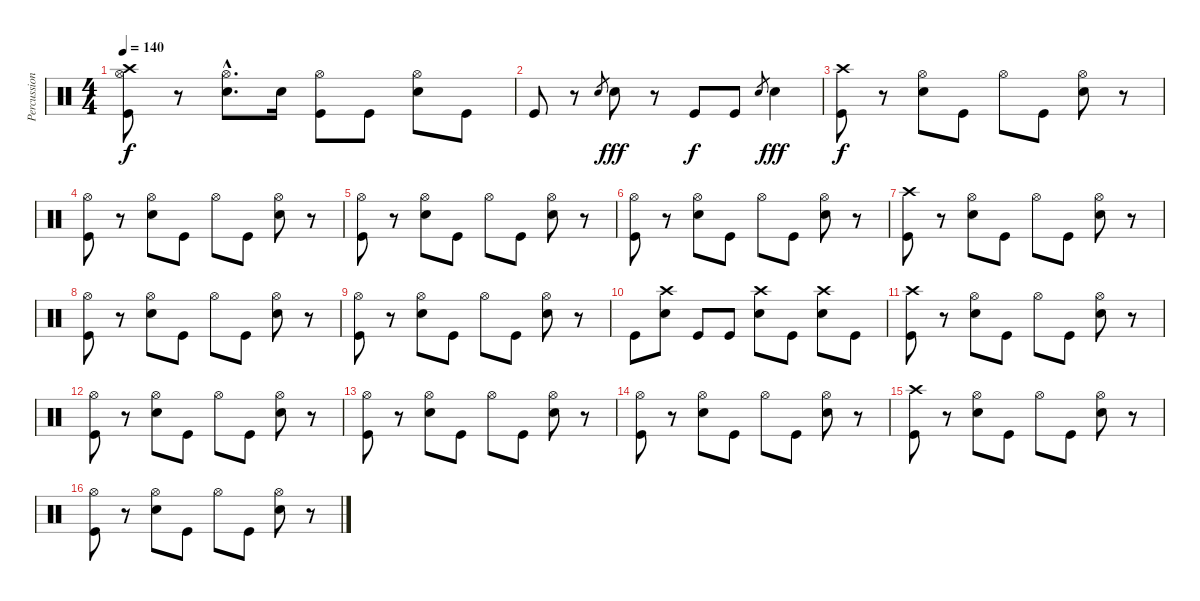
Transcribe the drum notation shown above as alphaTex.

\track ("Percussion" "Percussion") {instrument percussion}
\staff {score}
\articulation defaults
\ts (4 4)
\tempo 140
\clef neutral
\ks c
("Kick (hit)" "Hi-Hat (open)" "Crash high (hit)").8{dy f} r.8 ("Snare (hit) 2"{hac} "Hi-Hat (open)"{hac}).8{d} "Snare (hit) 2".16 ("Kick (hit)" "Hi-Hat (open)").8 "Kick (hit)".8 ("Snare (hit) 2" "Hi-Hat (open)").8 "Kick (hit)".8 |
"Kick (hit)".8 r.8 "Snare (hit) 2".8{gr} "Snare (hit) 2".8{dy fff} r.8 "Kick (hit)".8{dy f} "Kick (hit)".8 "Snare (hit) 2".8{gr} "Snare (hit) 2".4{dy fff} |
("Kick (hit)" "Crash high (hit)").8{dy f} r.8 ("Snare (hit) 2" "Hi-Hat (open)").8 "Kick (hit)".8 "Hi-Hat (open)".8 "Kick (hit)".8 ("Snare (hit) 2" "Hi-Hat (open)").8 r.8 |
("Kick (hit)" "Hi-Hat (open)").8 r.8 ("Snare (hit) 2" "Hi-Hat (open)").8 "Kick (hit)".8 "Hi-Hat (open)".8 "Kick (hit)".8 ("Snare (hit) 2" "Hi-Hat (open)").8 r.8 |
("Kick (hit)" "Hi-Hat (open)").8 r.8 ("Snare (hit) 2" "Hi-Hat (open)").8 "Kick (hit)".8 "Hi-Hat (open)".8 "Kick (hit)".8 ("Snare (hit) 2" "Hi-Hat (open)").8 r.8 |
("Kick (hit)" "Hi-Hat (open)").8 r.8 ("Snare (hit) 2" "Hi-Hat (open)").8 "Kick (hit)".8 "Hi-Hat (open)".8 "Kick (hit)".8 ("Snare (hit) 2" "Hi-Hat (open)").8 r.8 |
("Kick (hit)" "Crash high (hit)").8 r.8 ("Snare (hit) 2" "Hi-Hat (open)").8 "Kick (hit)".8 "Hi-Hat (open)".8 "Kick (hit)".8 ("Snare (hit) 2" "Hi-Hat (open)").8 r.8 |
("Kick (hit)" "Hi-Hat (open)").8 r.8 ("Snare (hit) 2" "Hi-Hat (open)").8 "Kick (hit)".8 "Hi-Hat (open)".8 "Kick (hit)".8 ("Snare (hit) 2" "Hi-Hat (open)").8 r.8 |
("Kick (hit)" "Hi-Hat (open)").8 r.8 ("Snare (hit) 2" "Hi-Hat (open)").8 "Kick (hit)".8 "Hi-Hat (open)".8 "Kick (hit)".8 ("Snare (hit) 2" "Hi-Hat (open)").8 r.8 |
"Kick (hit)".8 ("Snare (hit) 2" "Crash high (hit)").8 "Kick (hit)".8 "Kick (hit)".8 ("Snare (hit) 2" "Crash high (hit)").8 "Kick (hit)".8 ("Snare (hit) 2" "Crash high (hit)").8 "Kick (hit)".8 |
("Kick (hit)" "Crash high (hit)").8 r.8 ("Snare (hit) 2" "Hi-Hat (open)").8 "Kick (hit)".8 "Hi-Hat (open)".8 "Kick (hit)".8 ("Snare (hit) 2" "Hi-Hat (open)").8 r.8 |
("Kick (hit)" "Hi-Hat (open)").8 r.8 ("Snare (hit) 2" "Hi-Hat (open)").8 "Kick (hit)".8 "Hi-Hat (open)".8 "Kick (hit)".8 ("Snare (hit) 2" "Hi-Hat (open)").8 r.8 |
("Kick (hit)" "Hi-Hat (open)").8 r.8 ("Snare (hit) 2" "Hi-Hat (open)").8 "Kick (hit)".8 "Hi-Hat (open)".8 "Kick (hit)".8 ("Snare (hit) 2" "Hi-Hat (open)").8 r.8 |
("Kick (hit)" "Hi-Hat (open)").8 r.8 ("Snare (hit) 2" "Hi-Hat (open)").8 "Kick (hit)".8 "Hi-Hat (open)".8 "Kick (hit)".8 ("Snare (hit) 2" "Hi-Hat (open)").8 r.8 |
("Kick (hit)" "Crash high (hit)").8 r.8 ("Snare (hit) 2" "Hi-Hat (open)").8 "Kick (hit)".8 "Hi-Hat (open)".8 "Kick (hit)".8 ("Snare (hit) 2" "Hi-Hat (open)").8 r.8 |
("Kick (hit)" "Hi-Hat (open)").8 r.8 ("Snare (hit) 2" "Hi-Hat (open)").8 "Kick (hit)".8 "Hi-Hat (open)".8 "Kick (hit)".8 ("Snare (hit) 2" "Hi-Hat (open)").8 r.8
